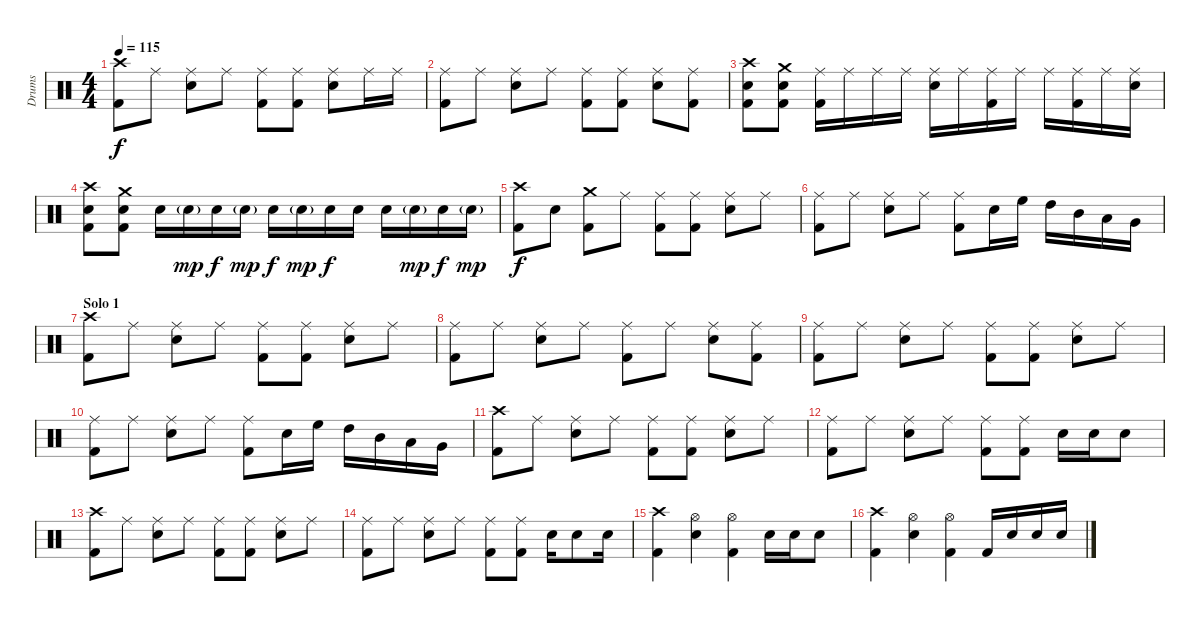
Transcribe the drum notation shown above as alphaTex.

\track ("Drums" "Drums") {instrument percussion}
\staff {score}
\articulation defaults
\ts (4 4)
\tempo 115
\clef neutral
\ks c
("Crash high (hit)" "Kick (hit) 2").8{dy f} "Ride (middle)".8 ("Ride (middle)" "Electric Snare (hit)").8 "Ride (middle)".8 ("Ride (middle)" "Kick (hit) 2").8 ("Ride (middle)" "Kick (hit) 2").8 ("Ride (middle)" "Electric Snare (hit)").8 "Ride (middle)".16 "Ride (middle)".16 |
("Ride (middle)" "Kick (hit) 2").8 "Ride (middle)".8 ("Ride (middle)" "Electric Snare (hit)").8 "Ride (middle)".8 ("Ride (middle)" "Kick (hit) 2").8 ("Ride (middle)" "Kick (hit) 2").8 ("Ride (middle)" "Electric Snare (hit)").8 ("Ride (middle)" "Kick (hit) 2").8 |
("Crash high (hit)" "Kick (hit) 2" "Electric Snare (hit)").8 ("Crash medium (hit)" "Kick (hit) 2" "Electric Snare (hit)").8 ("Ride (middle)" "Kick (hit) 2").16 "Ride (middle)".16 "Ride (middle)".16 "Ride (middle)".16 ("Ride (middle)" "Electric Snare (hit)").16 "Ride (middle)".16 ("Ride (middle)" "Kick (hit) 2").16 "Ride (middle)".16 "Ride (middle)".16 ("Ride (middle)" "Kick (hit) 2").16 "Ride (middle)".16 ("Ride (middle)" "Electric Snare (hit)").16 |
("Crash high (hit)" "Kick (hit) 2" "Electric Snare (hit)").8 ("Crash medium (hit)" "Kick (hit) 2" "Electric Snare (hit)").8 "Electric Snare (hit)".16 "Electric Snare (hit)"{g}.16{dy mp} "Electric Snare (hit)".16{dy f} "Electric Snare (hit)"{g}.16{dy mp} "Electric Snare (hit)".16{dy f} "Electric Snare (hit)"{g}.16{dy mp} "Electric Snare (hit)".16{dy f} "Electric Snare (hit)".16 "Electric Snare (hit)".16 "Electric Snare (hit)"{g}.16{dy mp} "Electric Snare (hit)".16{dy f} "Electric Snare (hit)"{g}.16{dy mp} |
("Crash high (hit)" "Kick (hit) 2").8{dy f} "Electric Snare (hit)".8 ("Crash medium (hit)" "Kick (hit) 2").8 "Ride (middle)".8 ("Ride (middle)" "Kick (hit) 2").8 ("Ride (middle)" "Kick (hit) 2").8 ("Ride (middle)" "Electric Snare (hit)").8 "Ride (middle)".8 |
("Ride (middle)" "Kick (hit) 2").8 "Ride (middle)".8 ("Ride (middle)" "Electric Snare (hit)").8 "Ride (middle)".8 ("Ride (middle)" "Kick (hit) 2").8 "Electric Snare (hit)".16 "High Floor Tom (hit)".16 "High Tom (hit)".16 "Mid Tom (hit)".16 "Low Tom (hit)".16 "Very Low Tom (hit)".16 |
\section ("" "Solo 1")
("Crash high (hit)" "Kick (hit) 2").8 "Ride (middle)".8 ("Ride (middle)" "Electric Snare (hit)").8 "Ride (middle)".8 ("Ride (middle)" "Kick (hit) 2").8 ("Ride (middle)" "Kick (hit) 2").8 ("Ride (middle)" "Electric Snare (hit)").8 "Ride (middle)".8 |
("Ride (middle)" "Kick (hit) 2").8 "Ride (middle)".8 ("Ride (middle)" "Electric Snare (hit)").8 "Ride (middle)".8 ("Ride (middle)" "Kick (hit) 2").8 "Ride (middle)".8 ("Ride (middle)" "Electric Snare (hit)").8 ("Ride (middle)" "Kick (hit) 2").8 |
("Ride (middle)" "Kick (hit) 2").8 "Ride (middle)".8 ("Ride (middle)" "Electric Snare (hit)").8 "Ride (middle)".8 ("Ride (middle)" "Kick (hit) 2").8 ("Ride (middle)" "Kick (hit) 2").8 ("Ride (middle)" "Electric Snare (hit)").8 "Ride (middle)".8 |
("Ride (middle)" "Kick (hit) 2").8 "Ride (middle)".8 ("Ride (middle)" "Electric Snare (hit)").8 "Ride (middle)".8 ("Ride (middle)" "Kick (hit) 2").8 "Electric Snare (hit)".16 "High Floor Tom (hit)".16 "High Tom (hit)".16 "Mid Tom (hit)".16 "Low Tom (hit)".16 "Very Low Tom (hit)".16 |
("Crash high (hit)" "Kick (hit) 2").8 "Ride (middle)".8 ("Ride (middle)" "Electric Snare (hit)").8 "Ride (middle)".8 ("Ride (middle)" "Kick (hit) 2").8 ("Ride (middle)" "Kick (hit) 2").8 ("Ride (middle)" "Electric Snare (hit)").8 "Ride (middle)".8 |
("Ride (middle)" "Kick (hit) 2").8 "Ride (middle)".8 ("Ride (middle)" "Electric Snare (hit)").8 "Ride (middle)".8 ("Ride (middle)" "Kick (hit) 2").8 ("Ride (middle)" "Kick (hit) 2").8 "Electric Snare (hit)".16 "Electric Snare (hit)".16 "Electric Snare (hit)".8 |
("Crash high (hit)" "Kick (hit) 2").8 "Ride (middle)".8 ("Ride (middle)" "Electric Snare (hit)").8 "Ride (middle)".8 ("Ride (middle)" "Kick (hit) 2").8 ("Ride (middle)" "Kick (hit) 2").8 ("Ride (middle)" "Electric Snare (hit)").8 "Ride (middle)".8 |
("Ride (middle)" "Kick (hit) 2").8 "Ride (middle)".8 ("Ride (middle)" "Electric Snare (hit)").8 "Ride (middle)".8 ("Ride (middle)" "Kick (hit) 2").8 ("Ride (middle)" "Kick (hit) 2").8 "Electric Snare (hit)".16 "Electric Snare (hit)".8 "Electric Snare (hit)".16 |
("Crash high (hit)" "Kick (hit) 2").4 ("Hi-Hat (open)" "Electric Snare (hit)").4 ("Hi-Hat (open)" "Kick (hit) 2").4 "Electric Snare (hit)".16 "Electric Snare (hit)".16 "Electric Snare (hit)".8 |
("Crash high (hit)" "Kick (hit) 2").4 ("Hi-Hat (open)" "Electric Snare (hit)").4 ("Hi-Hat (open)" "Kick (hit) 2").4 "Kick (hit) 2".16 "Electric Snare (hit)".16 "Electric Snare (hit)".16 "Electric Snare (hit)".16
